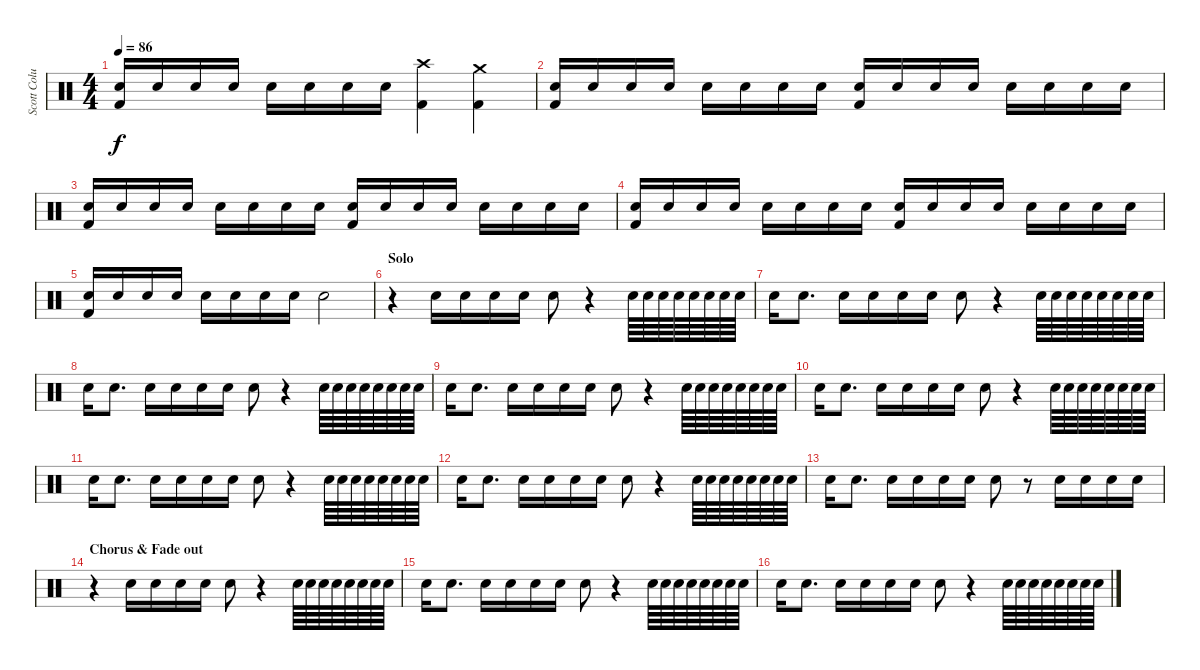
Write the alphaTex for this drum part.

\track ("Scott Columbus - Drums" "Scott Colu") {instrument percussion}
\staff {score}
\articulation defaults
\ts (4 4)
\tempo 86
\clef neutral
\ks c
("Kick (hit) 2" "Snare (hit) 2").16{dy f volume 7} "Snare (hit) 2".16 "Snare (hit) 2".16 "Snare (hit) 2".16 "Snare (hit) 2".16{volume 9} "Snare (hit) 2".16{volume 7} "Snare (hit) 2".16 "Snare (hit) 2".16 ("Crash high (hit)" "Kick (hit) 2").4{volume 9} ("Crash medium (hit)" "Kick (hit) 2").4 |
("Kick (hit) 2" "Snare (hit) 2").16{volume 7} "Snare (hit) 2".16 "Snare (hit) 2".16 "Snare (hit) 2".16 "Snare (hit) 2".16{volume 10} "Snare (hit) 2".16{volume 7} "Snare (hit) 2".16 "Snare (hit) 2".16 ("Kick (hit) 2" "Snare (hit) 2").16 "Snare (hit) 2".16 "Snare (hit) 2".16 "Snare (hit) 2".16 "Snare (hit) 2".16{volume 9} "Snare (hit) 2".16{volume 7} "Snare (hit) 2".16 "Snare (hit) 2".16 |
("Kick (hit) 2" "Snare (hit) 2").16{volume 7} "Snare (hit) 2".16 "Snare (hit) 2".16 "Snare (hit) 2".16 "Snare (hit) 2".16{volume 10} "Snare (hit) 2".16{volume 7} "Snare (hit) 2".16 "Snare (hit) 2".16 ("Kick (hit) 2" "Snare (hit) 2").16 "Snare (hit) 2".16 "Snare (hit) 2".16 "Snare (hit) 2".16 "Snare (hit) 2".16{volume 9} "Snare (hit) 2".16{volume 7} "Snare (hit) 2".16 "Snare (hit) 2".16 |
("Kick (hit) 2" "Snare (hit) 2").16{volume 7} "Snare (hit) 2".16 "Snare (hit) 2".16 "Snare (hit) 2".16 "Snare (hit) 2".16{volume 10} "Snare (hit) 2".16{volume 7} "Snare (hit) 2".16 "Snare (hit) 2".16 ("Kick (hit) 2" "Snare (hit) 2").16 "Snare (hit) 2".16 "Snare (hit) 2".16 "Snare (hit) 2".16 "Snare (hit) 2".16{volume 9} "Snare (hit) 2".16{volume 7} "Snare (hit) 2".16 "Snare (hit) 2".16 |
("Kick (hit) 2" "Snare (hit) 2").16{volume 8} "Snare (hit) 2".16 "Snare (hit) 2".16 "Snare (hit) 2".16 "Snare (hit) 2".16 "Snare (hit) 2".16 "Snare (hit) 2".16 "Snare (hit) 2".16 "Snare (hit) 2".2 |
\section ("" "Solo")
r.4{volume 10} "Snare (hit) 2".16 "Snare (hit) 2".16 "Snare (hit) 2".16 "Snare (hit) 2".16 "Snare (hit) 2".8 r.4 "Snare (hit) 2".64 "Snare (hit) 2".64 "Snare (hit) 2".64 "Snare (hit) 2".64 "Snare (hit) 2".64 "Snare (hit) 2".64 "Snare (hit) 2".64 "Snare (hit) 2".64 |
"Snare (hit) 2".16 "Snare (hit) 2".8{d} "Snare (hit) 2".16 "Snare (hit) 2".16 "Snare (hit) 2".16 "Snare (hit) 2".16 "Snare (hit) 2".8 r.4 "Snare (hit) 2".64 "Snare (hit) 2".64 "Snare (hit) 2".64 "Snare (hit) 2".64 "Snare (hit) 2".64 "Snare (hit) 2".64 "Snare (hit) 2".64 "Snare (hit) 2".64 |
"Snare (hit) 2".16 "Snare (hit) 2".8{d} "Snare (hit) 2".16 "Snare (hit) 2".16 "Snare (hit) 2".16 "Snare (hit) 2".16 "Snare (hit) 2".8 r.4 "Snare (hit) 2".64 "Snare (hit) 2".64 "Snare (hit) 2".64 "Snare (hit) 2".64 "Snare (hit) 2".64 "Snare (hit) 2".64 "Snare (hit) 2".64 "Snare (hit) 2".64 |
"Snare (hit) 2".16 "Snare (hit) 2".8{d} "Snare (hit) 2".16 "Snare (hit) 2".16 "Snare (hit) 2".16 "Snare (hit) 2".16 "Snare (hit) 2".8 r.4 "Snare (hit) 2".64 "Snare (hit) 2".64 "Snare (hit) 2".64 "Snare (hit) 2".64 "Snare (hit) 2".64 "Snare (hit) 2".64 "Snare (hit) 2".64 "Snare (hit) 2".64 |
"Snare (hit) 2".16 "Snare (hit) 2".8{d} "Snare (hit) 2".16 "Snare (hit) 2".16 "Snare (hit) 2".16 "Snare (hit) 2".16 "Snare (hit) 2".8 r.4 "Snare (hit) 2".64 "Snare (hit) 2".64 "Snare (hit) 2".64 "Snare (hit) 2".64 "Snare (hit) 2".64 "Snare (hit) 2".64 "Snare (hit) 2".64 "Snare (hit) 2".64 |
"Snare (hit) 2".16 "Snare (hit) 2".8{d} "Snare (hit) 2".16 "Snare (hit) 2".16 "Snare (hit) 2".16 "Snare (hit) 2".16 "Snare (hit) 2".8 r.4 "Snare (hit) 2".64 "Snare (hit) 2".64 "Snare (hit) 2".64 "Snare (hit) 2".64 "Snare (hit) 2".64 "Snare (hit) 2".64 "Snare (hit) 2".64 "Snare (hit) 2".64 |
"Snare (hit) 2".16 "Snare (hit) 2".8{d} "Snare (hit) 2".16 "Snare (hit) 2".16 "Snare (hit) 2".16 "Snare (hit) 2".16 "Snare (hit) 2".8 r.4 "Snare (hit) 2".64 "Snare (hit) 2".64 "Snare (hit) 2".64 "Snare (hit) 2".64 "Snare (hit) 2".64 "Snare (hit) 2".64 "Snare (hit) 2".64 "Snare (hit) 2".64 |
"Snare (hit) 2".16 "Snare (hit) 2".8{d} "Snare (hit) 2".16 "Snare (hit) 2".16 "Snare (hit) 2".16 "Snare (hit) 2".16 "Snare (hit) 2".8 r.8 "Snare (hit) 2".16 "Snare (hit) 2".16 "Snare (hit) 2".16 "Snare (hit) 2".16 |
\section ("" "Chorus & Fade out")
r.4 "Snare (hit) 2".16 "Snare (hit) 2".16 "Snare (hit) 2".16 "Snare (hit) 2".16 "Snare (hit) 2".8 r.4 "Snare (hit) 2".64 "Snare (hit) 2".64 "Snare (hit) 2".64 "Snare (hit) 2".64 "Snare (hit) 2".64 "Snare (hit) 2".64 "Snare (hit) 2".64 "Snare (hit) 2".64 |
"Snare (hit) 2".16 "Snare (hit) 2".8{d} "Snare (hit) 2".16 "Snare (hit) 2".16 "Snare (hit) 2".16 "Snare (hit) 2".16 "Snare (hit) 2".8 r.4 "Snare (hit) 2".64 "Snare (hit) 2".64 "Snare (hit) 2".64 "Snare (hit) 2".64 "Snare (hit) 2".64 "Snare (hit) 2".64 "Snare (hit) 2".64 "Snare (hit) 2".64 |
"Snare (hit) 2".16 "Snare (hit) 2".8{d} "Snare (hit) 2".16 "Snare (hit) 2".16 "Snare (hit) 2".16 "Snare (hit) 2".16 "Snare (hit) 2".8 r.4 "Snare (hit) 2".64 "Snare (hit) 2".64 "Snare (hit) 2".64 "Snare (hit) 2".64 "Snare (hit) 2".64 "Snare (hit) 2".64 "Snare (hit) 2".64 "Snare (hit) 2".64
